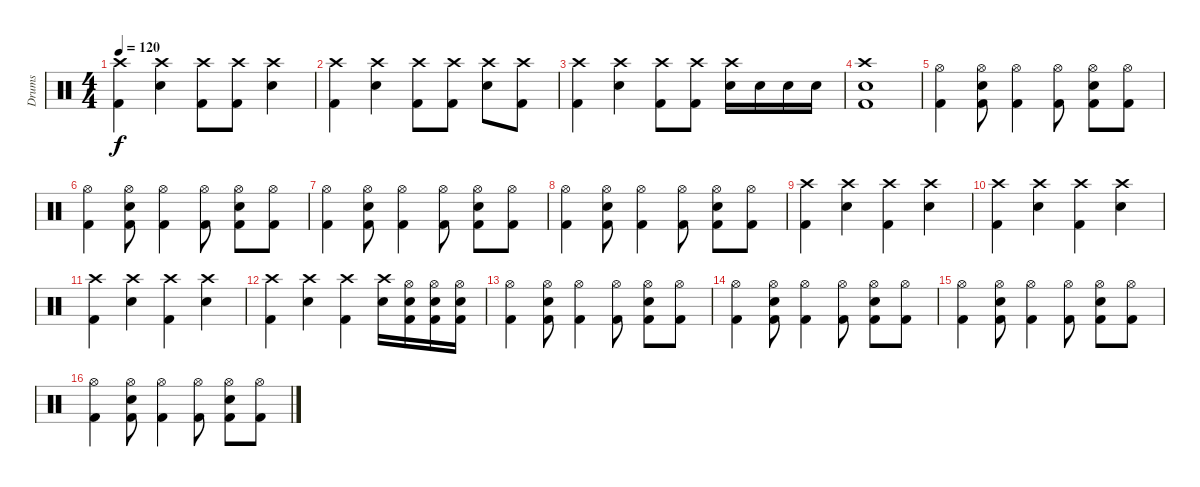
\track ("Drums" "Drums") {instrument percussion}
\staff {score}
\articulation defaults
\ts (4 4)
\tempo 120
\clef neutral
\ks c
("Crash high (hit)" "Kick (hit) 2").4{dy f} ("Crash high (hit)" "Electric Snare (hit)").4 ("Crash high (hit)" "Kick (hit) 2").8 ("Crash high (hit)" "Kick (hit) 2").8 ("Crash high (hit)" "Electric Snare (hit)").4 |
("Crash high (hit)" "Kick (hit) 2").4 ("Crash high (hit)" "Electric Snare (hit)").4 ("Crash high (hit)" "Kick (hit) 2").8 ("Crash high (hit)" "Kick (hit) 2").8 ("Crash high (hit)" "Electric Snare (hit)").8 ("Crash high (hit)" "Kick (hit) 2").8 |
("Crash high (hit)" "Kick (hit) 2").4 ("Crash high (hit)" "Electric Snare (hit)").4 ("Crash high (hit)" "Kick (hit) 2").8 ("Crash high (hit)" "Kick (hit) 2").8 ("Crash high (hit)" "Electric Snare (hit)").16 "Electric Snare (hit)".16 "Electric Snare (hit)".16 "Electric Snare (hit)".16 |
("Crash high (hit)" "Electric Snare (hit)" "Kick (hit) 2").1 |
("Hi-Hat (open)" "Kick (hit) 2").4 ("Electric Snare (hit)" "Hi-Hat (open)" "Kick (hit) 2").8 ("Hi-Hat (open)" "Kick (hit) 2").4 ("Hi-Hat (open)" "Kick (hit) 2").8 ("Electric Snare (hit)" "Hi-Hat (open)" "Kick (hit) 2").8 ("Hi-Hat (open)" "Kick (hit) 2").8 |
("Hi-Hat (open)" "Kick (hit) 2").4 ("Electric Snare (hit)" "Hi-Hat (open)" "Kick (hit) 2").8 ("Hi-Hat (open)" "Kick (hit) 2").4 ("Hi-Hat (open)" "Kick (hit) 2").8 ("Electric Snare (hit)" "Hi-Hat (open)" "Kick (hit) 2").8 ("Hi-Hat (open)" "Kick (hit) 2").8 |
("Hi-Hat (open)" "Kick (hit) 2").4 ("Electric Snare (hit)" "Hi-Hat (open)" "Kick (hit) 2").8 ("Hi-Hat (open)" "Kick (hit) 2").4 ("Hi-Hat (open)" "Kick (hit) 2").8 ("Electric Snare (hit)" "Hi-Hat (open)" "Kick (hit) 2").8 ("Hi-Hat (open)" "Kick (hit) 2").8 |
("Hi-Hat (open)" "Kick (hit) 2").4 ("Electric Snare (hit)" "Hi-Hat (open)" "Kick (hit) 2").8 ("Hi-Hat (open)" "Kick (hit) 2").4 ("Hi-Hat (open)" "Kick (hit) 2").8 ("Electric Snare (hit)" "Hi-Hat (open)" "Kick (hit) 2").8 ("Hi-Hat (open)" "Kick (hit) 2").8 |
("Crash high (hit)" "Kick (hit) 2").4 ("Crash high (hit)" "Electric Snare (hit)").4 ("Crash high (hit)" "Kick (hit) 2").4 ("Crash high (hit)" "Electric Snare (hit)").4 |
("Crash high (hit)" "Kick (hit) 2").4 ("Crash high (hit)" "Electric Snare (hit)").4 ("Crash high (hit)" "Kick (hit) 2").4 ("Crash high (hit)" "Electric Snare (hit)").4 |
("Crash high (hit)" "Kick (hit) 2").4 ("Crash high (hit)" "Electric Snare (hit)").4 ("Crash high (hit)" "Kick (hit) 2").4 ("Crash high (hit)" "Electric Snare (hit)").4 |
("Crash high (hit)" "Kick (hit) 2").4 ("Crash high (hit)" "Electric Snare (hit)").4 ("Crash high (hit)" "Kick (hit) 2").4 ("Crash high (hit)" "Electric Snare (hit)").16 ("Hi-Hat (open)" "Electric Snare (hit)" "Kick (hit) 2").16 ("Hi-Hat (open)" "Electric Snare (hit)" "Kick (hit) 2").16 ("Hi-Hat (open)" "Electric Snare (hit)" "Kick (hit) 2").16 |
("Hi-Hat (open)" "Kick (hit) 2").4 ("Electric Snare (hit)" "Hi-Hat (open)" "Kick (hit) 2").8 ("Hi-Hat (open)" "Kick (hit) 2").4 ("Hi-Hat (open)" "Kick (hit) 2").8 ("Electric Snare (hit)" "Hi-Hat (open)" "Kick (hit) 2").8 ("Hi-Hat (open)" "Kick (hit) 2").8 |
("Hi-Hat (open)" "Kick (hit) 2").4 ("Electric Snare (hit)" "Hi-Hat (open)" "Kick (hit) 2").8 ("Hi-Hat (open)" "Kick (hit) 2").4 ("Hi-Hat (open)" "Kick (hit) 2").8 ("Electric Snare (hit)" "Hi-Hat (open)" "Kick (hit) 2").8 ("Hi-Hat (open)" "Kick (hit) 2").8 |
("Hi-Hat (open)" "Kick (hit) 2").4 ("Electric Snare (hit)" "Hi-Hat (open)" "Kick (hit) 2").8 ("Hi-Hat (open)" "Kick (hit) 2").4 ("Hi-Hat (open)" "Kick (hit) 2").8 ("Electric Snare (hit)" "Hi-Hat (open)" "Kick (hit) 2").8 ("Hi-Hat (open)" "Kick (hit) 2").8 |
("Hi-Hat (open)" "Kick (hit) 2").4 ("Electric Snare (hit)" "Hi-Hat (open)" "Kick (hit) 2").8 ("Hi-Hat (open)" "Kick (hit) 2").4 ("Hi-Hat (open)" "Kick (hit) 2").8 ("Electric Snare (hit)" "Hi-Hat (open)" "Kick (hit) 2").8 ("Hi-Hat (open)" "Kick (hit) 2").8
